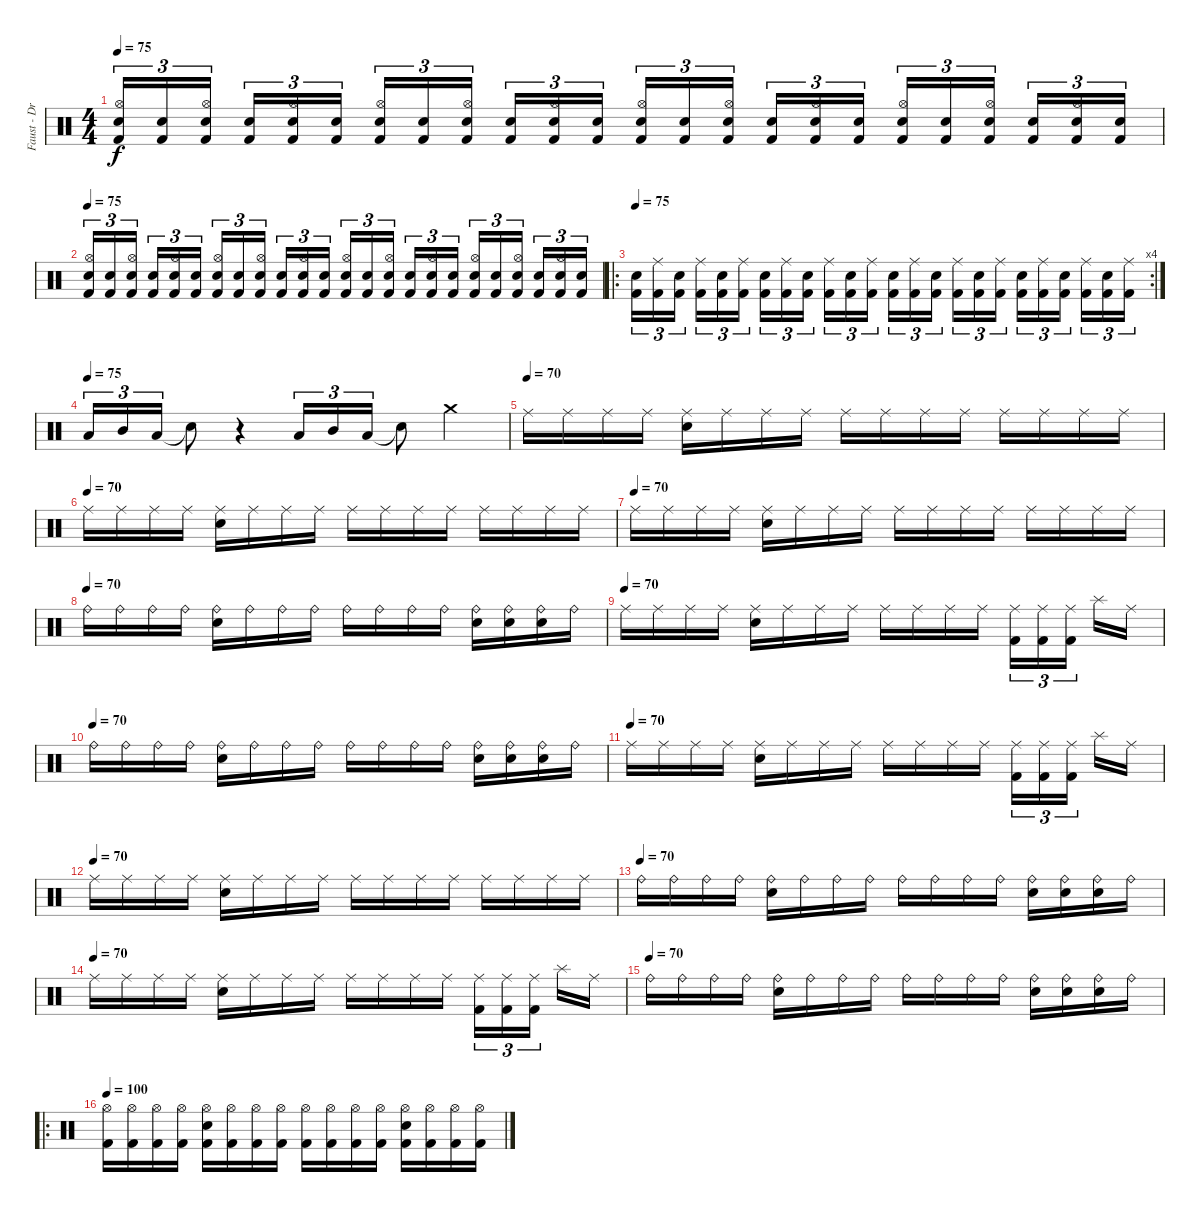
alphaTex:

\track ("Faust - Drums" "Faust - Dr") {instrument percussion}
\staff {score}
\articulation defaults
\ts (4 4)
\tempo 75
\clef neutral
\ks c
("Electric Snare (hit)" "Hi-Hat (open)" "Kick (hit) 2").16{tu (3 2) dy f} ("Electric Snare (hit)" "Kick (hit) 2").16{tu (3 2)} ("Electric Snare (hit)" "Hi-Hat (open)" "Kick (hit) 2").16{tu (3 2)} ("Electric Snare (hit)" "Kick (hit) 2").16{tu (3 2)} ("Electric Snare (hit)" "Hi-Hat (open)" "Kick (hit) 2").16{tu (3 2)} ("Electric Snare (hit)" "Kick (hit) 2").16{tu (3 2)} ("Electric Snare (hit)" "Hi-Hat (open)" "Kick (hit) 2").16{tu (3 2)} ("Electric Snare (hit)" "Kick (hit) 2").16{tu (3 2)} ("Electric Snare (hit)" "Hi-Hat (open)" "Kick (hit) 2").16{tu (3 2)} ("Electric Snare (hit)" "Kick (hit) 2").16{tu (3 2)} ("Electric Snare (hit)" "Hi-Hat (open)" "Kick (hit) 2").16{tu (3 2)} ("Electric Snare (hit)" "Kick (hit) 2").16{tu (3 2)} ("Electric Snare (hit)" "Hi-Hat (open)" "Kick (hit) 2").16{tu (3 2)} ("Electric Snare (hit)" "Kick (hit) 2").16{tu (3 2)} ("Electric Snare (hit)" "Hi-Hat (open)" "Kick (hit) 2").16{tu (3 2)} ("Electric Snare (hit)" "Kick (hit) 2").16{tu (3 2)} ("Electric Snare (hit)" "Hi-Hat (open)" "Kick (hit) 2").16{tu (3 2)} ("Electric Snare (hit)" "Kick (hit) 2").16{tu (3 2)} ("Electric Snare (hit)" "Hi-Hat (open)" "Kick (hit) 2").16{tu (3 2)} ("Electric Snare (hit)" "Kick (hit) 2").16{tu (3 2)} ("Electric Snare (hit)" "Hi-Hat (open)" "Kick (hit) 2").16{tu (3 2)} ("Electric Snare (hit)" "Kick (hit) 2").16{tu (3 2)} ("Electric Snare (hit)" "Hi-Hat (open)" "Kick (hit) 2").16{tu (3 2)} ("Electric Snare (hit)" "Kick (hit) 2").16{tu (3 2)} |
\tempo 75
("Electric Snare (hit)" "Hi-Hat (open)" "Kick (hit) 2").16{tu (3 2)} ("Electric Snare (hit)" "Kick (hit) 2").16{tu (3 2)} ("Electric Snare (hit)" "Hi-Hat (open)" "Kick (hit) 2").16{tu (3 2)} ("Electric Snare (hit)" "Kick (hit) 2").16{tu (3 2)} ("Electric Snare (hit)" "Hi-Hat (open)" "Kick (hit) 2").16{tu (3 2)} ("Electric Snare (hit)" "Kick (hit) 2").16{tu (3 2)} ("Electric Snare (hit)" "Hi-Hat (open)" "Kick (hit) 2").16{tu (3 2)} ("Electric Snare (hit)" "Kick (hit) 2").16{tu (3 2)} ("Electric Snare (hit)" "Hi-Hat (open)" "Kick (hit) 2").16{tu (3 2)} ("Electric Snare (hit)" "Kick (hit) 2").16{tu (3 2)} ("Electric Snare (hit)" "Hi-Hat (open)" "Kick (hit) 2").16{tu (3 2)} ("Electric Snare (hit)" "Kick (hit) 2").16{tu (3 2)} ("Electric Snare (hit)" "Hi-Hat (open)" "Kick (hit) 2").16{tu (3 2)} ("Electric Snare (hit)" "Kick (hit) 2").16{tu (3 2)} ("Electric Snare (hit)" "Hi-Hat (open)" "Kick (hit) 2").16{tu (3 2)} ("Electric Snare (hit)" "Kick (hit) 2").16{tu (3 2)} ("Electric Snare (hit)" "Hi-Hat (open)" "Kick (hit) 2").16{tu (3 2)} ("Electric Snare (hit)" "Kick (hit) 2").16{tu (3 2)} ("Electric Snare (hit)" "Hi-Hat (open)" "Kick (hit) 2").16{tu (3 2)} ("Electric Snare (hit)" "Kick (hit) 2").16{tu (3 2)} ("Electric Snare (hit)" "Hi-Hat (open)" "Kick (hit) 2").16{tu (3 2)} ("Electric Snare (hit)" "Kick (hit) 2").16{tu (3 2)} ("Electric Snare (hit)" "Hi-Hat (open)" "Kick (hit) 2").16{tu (3 2)} ("Electric Snare (hit)" "Kick (hit) 2").16{tu (3 2)} |
\ro
\rc 4
\tempo 75
("Electric Snare (hit)" "Kick (hit) 2").16{tu (3 2)} ("Ride (middle)" "Kick (hit) 2").16{tu (3 2)} ("Electric Snare (hit)" "Kick (hit) 2").16{tu (3 2)} ("Ride (middle)" "Kick (hit) 2").16{tu (3 2)} ("Electric Snare (hit)" "Kick (hit) 2").16{tu (3 2)} ("Ride (middle)" "Kick (hit) 2").16{tu (3 2)} ("Electric Snare (hit)" "Kick (hit) 2").16{tu (3 2)} ("Ride (middle)" "Kick (hit) 2").16{tu (3 2)} ("Electric Snare (hit)" "Kick (hit) 2").16{tu (3 2)} ("Ride (middle)" "Kick (hit) 2").16{tu (3 2)} ("Electric Snare (hit)" "Kick (hit) 2").16{tu (3 2)} ("Ride (middle)" "Kick (hit) 2").16{tu (3 2)} ("Electric Snare (hit)" "Kick (hit) 2").16{tu (3 2)} ("Ride (middle)" "Kick (hit) 2").16{tu (3 2)} ("Electric Snare (hit)" "Kick (hit) 2").16{tu (3 2)} ("Ride (middle)" "Kick (hit) 2").16{tu (3 2)} ("Electric Snare (hit)" "Kick (hit) 2").16{tu (3 2)} ("Ride (middle)" "Kick (hit) 2").16{tu (3 2)} ("Electric Snare (hit)" "Kick (hit) 2").16{tu (3 2)} ("Ride (middle)" "Kick (hit) 2").16{tu (3 2)} ("Electric Snare (hit)" "Kick (hit) 2").16{tu (3 2)} ("Ride (middle)" "Kick (hit) 2").16{tu (3 2)} ("Electric Snare (hit)" "Kick (hit) 2").16{tu (3 2)} ("Ride (middle)" "Kick (hit) 2").16{tu (3 2)} |
\tempo (75)
"Low Tom (hit)".16{tu (3 2)} "Mid Tom (hit)".16{tu (3 2)} "Low Tom (hit)".16{tu (3 2)} "Snare (hit)"{t}.8 r.4 "Low Tom (hit)".16{tu (3 2)} "Mid Tom (hit)".16{tu (3 2)} "Low Tom (hit)".16{tu (3 2)} "Snare (hit)"{t}.8 "Crash medium (hit)".4 |
\tempo (70)
"Ride (middle)".16 "Ride (middle)".16 "Ride (middle)".16 "Ride (middle)".16 ("Ride (middle)" "Electric Snare (hit)").16 "Ride (middle)".16 "Ride (middle)".16 "Ride (middle)".16 "Ride (middle)".16 "Ride (middle)".16 "Ride (middle)".16 "Ride (middle)".16 "Ride (middle)".16 "Ride (middle)".16 "Ride (middle)".16 "Ride (middle)".16 |
\tempo (70)
"Ride (middle)".16 "Ride (middle)".16 "Ride (middle)".16 "Ride (middle)".16 ("Ride (middle)" "Electric Snare (hit)").16 "Ride (middle)".16 "Ride (middle)".16 "Ride (middle)".16 "Ride (middle)".16 "Ride (middle)".16 "Ride (middle)".16 "Ride (middle)".16 "Ride (middle)".16 "Ride (middle)".16 "Ride (middle)".16 "Ride (middle)".16 |
\tempo (70)
"Ride (middle)".16 "Ride (middle)".16 "Ride (middle)".16 "Ride (middle)".16 ("Ride (middle)" "Electric Snare (hit)").16 "Ride (middle)".16 "Ride (middle)".16 "Ride (middle)".16 "Ride (middle)".16 "Ride (middle)".16 "Ride (middle)".16 "Ride (middle)".16 "Ride (middle)".16 "Ride (middle)".16 "Ride (middle)".16 "Ride (middle)".16 |
\tempo (70)
"Ride (bell)".16 "Ride (bell)".16 "Ride (bell)".16 "Ride (bell)".16 ("Ride (bell)" "Electric Snare (hit)").16 "Ride (bell)".16 "Ride (bell)".16 "Ride (bell)".16 "Ride (bell)".16 "Ride (bell)".16 "Ride (bell)".16 "Ride (bell)".16 ("Ride (bell)" "Electric Snare (hit)").16 ("Ride (bell)" "Electric Snare (hit)").16 ("Ride (bell)" "Electric Snare (hit)").16 "Ride (bell)".16 |
\tempo (70)
"Ride (middle)".16 "Ride (middle)".16 "Ride (middle)".16 "Ride (middle)".16 ("Ride (middle)" "Electric Snare (hit)").16 "Ride (middle)".16 "Ride (middle)".16 "Ride (middle)".16 "Ride (middle)".16 "Ride (middle)".16 "Ride (middle)".16 "Ride (middle)".16 ("Ride (middle)" "Kick (hit) 2").16{tu (3 2)} ("Ride (middle)" "Kick (hit) 2").16{tu (3 2)} ("Ride (middle)" "Kick (hit) 2").16{tu (3 2)} "Splash (hit)".16 "Ride (middle)".16 |
\tempo (70)
"Ride (bell)".16 "Ride (bell)".16 "Ride (bell)".16 "Ride (bell)".16 ("Ride (bell)" "Electric Snare (hit)").16 "Ride (bell)".16 "Ride (bell)".16 "Ride (bell)".16 "Ride (bell)".16 "Ride (bell)".16 "Ride (bell)".16 "Ride (bell)".16 ("Ride (bell)" "Electric Snare (hit)").16 ("Ride (bell)" "Electric Snare (hit)").16 ("Ride (bell)" "Electric Snare (hit)").16 "Ride (bell)".16 |
\tempo (70)
"Ride (middle)".16 "Ride (middle)".16 "Ride (middle)".16 "Ride (middle)".16 ("Ride (middle)" "Electric Snare (hit)").16 "Ride (middle)".16 "Ride (middle)".16 "Ride (middle)".16 "Ride (middle)".16 "Ride (middle)".16 "Ride (middle)".16 "Ride (middle)".16 ("Ride (middle)" "Kick (hit) 2").16{tu (3 2)} ("Ride (middle)" "Kick (hit) 2").16{tu (3 2)} ("Ride (middle)" "Kick (hit) 2").16{tu (3 2)} "Splash (hit)".16 "Ride (middle)".16 |
\tempo (70)
"Ride (middle)".16 "Ride (middle)".16 "Ride (middle)".16 "Ride (middle)".16 ("Ride (middle)" "Electric Snare (hit)").16 "Ride (middle)".16 "Ride (middle)".16 "Ride (middle)".16 "Ride (middle)".16 "Ride (middle)".16 "Ride (middle)".16 "Ride (middle)".16 "Ride (middle)".16 "Ride (middle)".16 "Ride (middle)".16 "Ride (middle)".16 |
\tempo (70)
"Ride (bell)".16 "Ride (bell)".16 "Ride (bell)".16 "Ride (bell)".16 ("Ride (bell)" "Electric Snare (hit)").16 "Ride (bell)".16 "Ride (bell)".16 "Ride (bell)".16 "Ride (bell)".16 "Ride (bell)".16 "Ride (bell)".16 "Ride (bell)".16 ("Ride (bell)" "Electric Snare (hit)").16 ("Ride (bell)" "Electric Snare (hit)").16 ("Ride (bell)" "Electric Snare (hit)").16 "Ride (bell)".16 |
\tempo (70)
"Ride (middle)".16 "Ride (middle)".16 "Ride (middle)".16 "Ride (middle)".16 ("Ride (middle)" "Electric Snare (hit)").16 "Ride (middle)".16 "Ride (middle)".16 "Ride (middle)".16 "Ride (middle)".16 "Ride (middle)".16 "Ride (middle)".16 "Ride (middle)".16 ("Ride (middle)" "Kick (hit) 2").16{tu (3 2)} ("Ride (middle)" "Kick (hit) 2").16{tu (3 2)} ("Ride (middle)" "Kick (hit) 2").16{tu (3 2)} "Splash (hit)".16 "Ride (middle)".16 |
\tempo (70)
"Ride (bell)".16 "Ride (bell)".16 "Ride (bell)".16 "Ride (bell)".16 ("Ride (bell)" "Electric Snare (hit)").16 "Ride (bell)".16 "Ride (bell)".16 "Ride (bell)".16 "Ride (bell)".16 "Ride (bell)".16 "Ride (bell)".16 "Ride (bell)".16 ("Ride (bell)" "Electric Snare (hit)").16 ("Ride (bell)" "Electric Snare (hit)").16 ("Ride (bell)" "Electric Snare (hit)").16 "Ride (bell)".16 |
\ro
\tempo 100
("Hi-Hat (open)" "Kick (hit) 2").16 ("Hi-Hat (open)" "Kick (hit) 2").16 ("Hi-Hat (open)" "Kick (hit) 2").16 ("Hi-Hat (open)" "Kick (hit) 2").16 ("Electric Snare (hit)" "Hi-Hat (open)" "Kick (hit) 2").16 ("Hi-Hat (open)" "Kick (hit) 2").16 ("Hi-Hat (open)" "Kick (hit) 2").16 ("Hi-Hat (open)" "Kick (hit) 2").16 ("Hi-Hat (open)" "Kick (hit) 2").16 ("Hi-Hat (open)" "Kick (hit) 2").16 ("Hi-Hat (open)" "Kick (hit) 2").16 ("Hi-Hat (open)" "Kick (hit) 2").16 ("Electric Snare (hit)" "Hi-Hat (open)" "Kick (hit) 2").16 ("Hi-Hat (open)" "Kick (hit) 2").16 ("Hi-Hat (open)" "Kick (hit) 2").16 ("Hi-Hat (open)" "Kick (hit) 2").16
